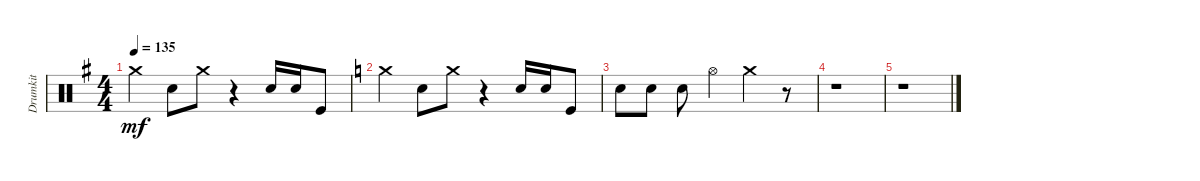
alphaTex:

\track ("Drumkit" "Drumkit") {instrument percussion}
\staff {score}
\articulation defaults
\ts (4 4)
\tempo 135
\clef neutral
\ks g "Crash medium (hit)".4{dy mf} "Snare (hit) 2".8 "Crash medium (hit)".8
r.4 "Snare (hit) 2".16 "Snare (hit) 2".16 "Kick (hit)".8 |
\ks c "Crash medium (hit)".4 "Snare (hit) 2".8 "Crash medium (hit)".8
r.4 "Snare (hit) 2".16 "Snare (hit) 2".16 "Kick (hit)".8 |
"Snare (hit) 2".8 "Snare (hit) 2".8 "Snare (hit) 2".8 "Hi-Hat (open)".4 "Crash medium (hit)".4 r.8 |
r.1 |
r.1
